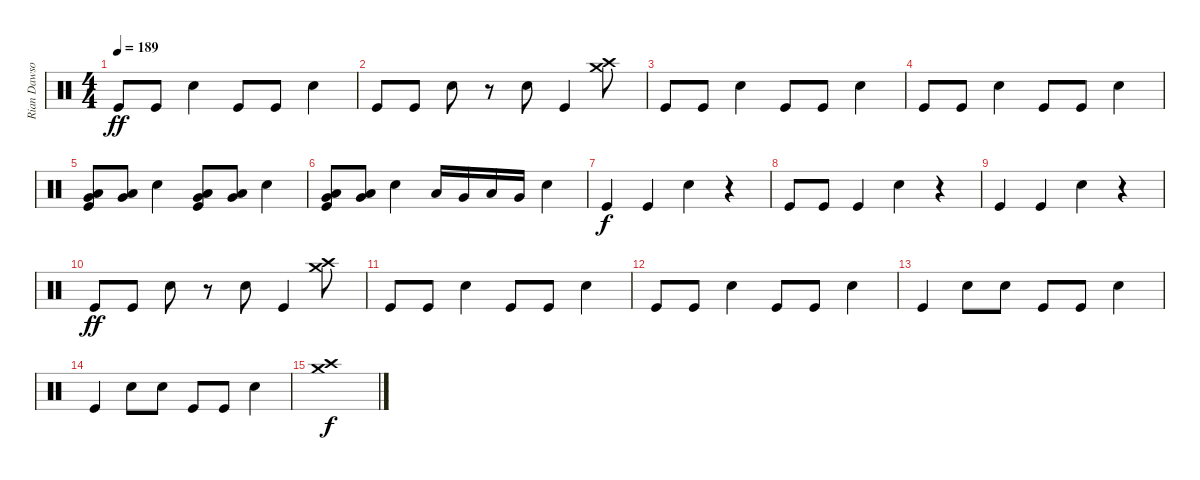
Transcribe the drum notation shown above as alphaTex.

\track ("Rian Dawson" "Rian Dawso") {instrument percussion}
\staff {score}
\articulation defaults
\ts (4 4)
\tempo 189
\clef neutral
\ks c "Kick (hit)".8{dy ff} "Kick (hit)".8 "Snare (hit) 2".4 "Kick (hit)".8 "Kick (hit)".8 "Snare (hit) 2".4
|
"Kick (hit)".8 "Kick (hit)".8 "Snare (hit) 2".8 r.8 "Snare (hit) 2".8 "Kick (hit)".4 ("Crash high (hit)" "Crash medium (hit)").8 |
"Kick (hit)".8 "Kick (hit)".8 "Snare (hit) 2".4 "Kick (hit)".8 "Kick (hit)".8 "Snare (hit) 2".4 |
"Kick (hit)".8 "Kick (hit)".8 "Snare (hit) 2".4 "Kick (hit)".8 "Kick (hit)".8 "Snare (hit) 2".4 |
("Very Low Tom (hit)" "Low Tom (hit)" "Kick (hit)").8 ("Very Low Tom (hit)" "Low Tom (hit)").8 "Snare (hit) 2".4 ("Very Low Tom (hit)" "Low Tom (hit)" "Kick (hit)").8 ("Very Low Tom (hit)" "Low Tom (hit)").8 "Snare (hit) 2".4 |
("Very Low Tom (hit)" "Low Tom (hit)" "Kick (hit)").8 ("Very Low Tom (hit)" "Low Tom (hit)").8 "Snare (hit) 2".4 "Low Tom (hit)".16 "Very Low Tom (hit)".16 "Low Tom (hit)".16 "Very Low Tom (hit)".16 "Snare (hit) 2".4 |
"Kick (hit)".4{dy f} "Kick (hit)".4 "Snare (hit) 2".4 r.4 |
"Kick (hit)".8 "Kick (hit)".8 "Kick (hit)".4 "Snare (hit) 2".4 r.4 |
"Kick (hit)".4 "Kick (hit)".4 "Snare (hit) 2".4 r.4 |
"Kick (hit)".8{dy ff} "Kick (hit)".8 "Snare (hit) 2".8 r.8 "Snare (hit) 2".8 "Kick (hit)".4 ("Crash high (hit)" "Crash medium (hit)").8 |
"Kick (hit)".8 "Kick (hit)".8 "Snare (hit) 2".4 "Kick (hit)".8 "Kick (hit)".8 "Snare (hit) 2".4 |
"Kick (hit)".8 "Kick (hit)".8 "Snare (hit) 2".4 "Kick (hit)".8 "Kick (hit)".8 "Snare (hit) 2".4 |
"Kick (hit)".4 "Snare (hit) 2".8 "Snare (hit) 2".8 "Kick (hit)".8 "Kick (hit)".8 "Snare (hit) 2".4 |
"Kick (hit)".4 "Snare (hit) 2".8 "Snare (hit) 2".8 "Kick (hit)".8 "Kick (hit)".8 "Snare (hit) 2".4 |
("Crash high (hit)" "Crash medium (hit)").1{dy f}
